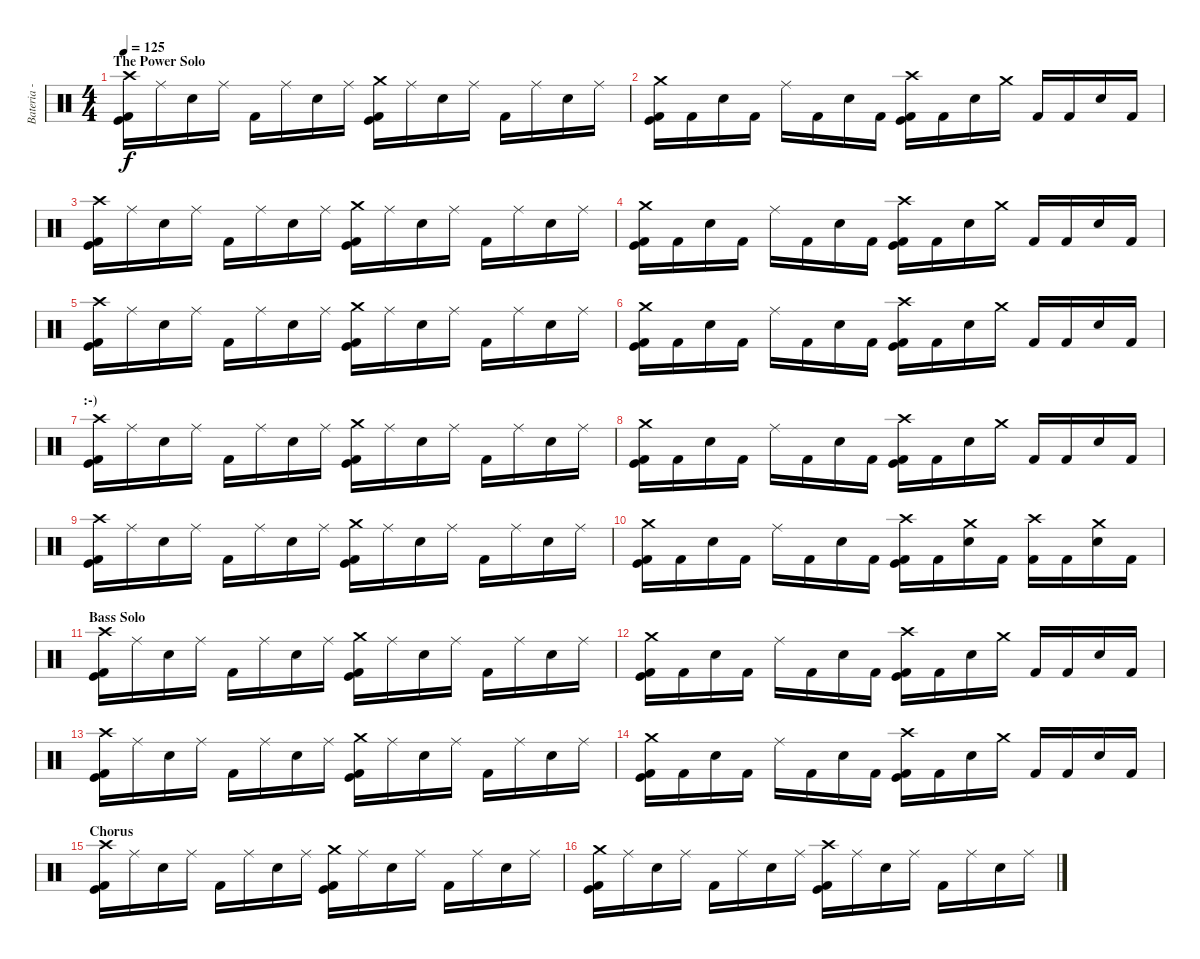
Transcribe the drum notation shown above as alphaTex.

\track ("Bateria - Drums" "Bateria - ") {instrument percussion}
\staff {score}
\articulation defaults
\ts (4 4)
\section ("" "The Power Solo")
\tempo 125
\clef neutral
\ks c
("Crash high (hit)" "Kick (hit)" "Kick (hit) 2").16{dy f} "Ride (middle)".16 "Electric Snare (hit)".16 "Ride (middle)".16 "Kick (hit) 2".16 "Ride (middle)".16 "Electric Snare (hit)".16 "Ride (middle)".16 ("Crash medium (hit)" "Kick (hit)" "Kick (hit) 2").16 "Ride (middle)".16 "Electric Snare (hit)".16 "Ride (middle)".16 "Kick (hit) 2".16 "Ride (middle)".16 "Electric Snare (hit)".16 "Ride (middle)".16 |
("Crash medium (hit)" "Kick (hit)" "Kick (hit) 2").16 "Kick (hit) 2".16 "Electric Snare (hit)".16 "Kick (hit) 2".16 "Ride (middle)".16 "Kick (hit) 2".16 "Electric Snare (hit)".16 "Kick (hit) 2".16 ("Crash high (hit)" "Kick (hit)" "Kick (hit) 2").16 "Kick (hit) 2".16 "Electric Snare (hit)".16 "Crash medium (hit)".16 "Kick (hit) 2".16 "Kick (hit) 2".16 "Electric Snare (hit)".16 "Kick (hit) 2".16 |
("Crash high (hit)" "Kick (hit)" "Kick (hit) 2").16 "Ride (middle)".16 "Electric Snare (hit)".16 "Ride (middle)".16 "Kick (hit) 2".16 "Ride (middle)".16 "Electric Snare (hit)".16 "Ride (middle)".16 ("Crash medium (hit)" "Kick (hit)" "Kick (hit) 2").16 "Ride (middle)".16 "Electric Snare (hit)".16 "Ride (middle)".16 "Kick (hit) 2".16 "Ride (middle)".16 "Electric Snare (hit)".16 "Ride (middle)".16 |
("Crash medium (hit)" "Kick (hit)" "Kick (hit) 2").16 "Kick (hit) 2".16 "Electric Snare (hit)".16 "Kick (hit) 2".16 "Ride (middle)".16 "Kick (hit) 2".16 "Electric Snare (hit)".16 "Kick (hit) 2".16 ("Crash high (hit)" "Kick (hit)" "Kick (hit) 2").16 "Kick (hit) 2".16 "Electric Snare (hit)".16 "Crash medium (hit)".16 "Kick (hit) 2".16 "Kick (hit) 2".16 "Electric Snare (hit)".16 "Kick (hit) 2".16 |
("Crash high (hit)" "Kick (hit)" "Kick (hit) 2").16 "Ride (middle)".16 "Electric Snare (hit)".16 "Ride (middle)".16 "Kick (hit) 2".16 "Ride (middle)".16 "Electric Snare (hit)".16 "Ride (middle)".16 ("Crash medium (hit)" "Kick (hit)" "Kick (hit) 2").16 "Ride (middle)".16 "Electric Snare (hit)".16 "Ride (middle)".16 "Kick (hit) 2".16 "Ride (middle)".16 "Electric Snare (hit)".16 "Ride (middle)".16 |
("Crash medium (hit)" "Kick (hit)" "Kick (hit) 2").16 "Kick (hit) 2".16 "Electric Snare (hit)".16 "Kick (hit) 2".16 "Ride (middle)".16 "Kick (hit) 2".16 "Electric Snare (hit)".16 "Kick (hit) 2".16 ("Crash high (hit)" "Kick (hit)" "Kick (hit) 2").16 "Kick (hit) 2".16 "Electric Snare (hit)".16 "Crash medium (hit)".16 "Kick (hit) 2".16 "Kick (hit) 2".16 "Electric Snare (hit)".16 "Kick (hit) 2".16 |
\section ("" ":-)")
("Crash high (hit)" "Kick (hit)" "Kick (hit) 2").16 "Ride (middle)".16 "Electric Snare (hit)".16 "Ride (middle)".16 "Kick (hit) 2".16 "Ride (middle)".16 "Electric Snare (hit)".16 "Ride (middle)".16 ("Crash medium (hit)" "Kick (hit)" "Kick (hit) 2").16 "Ride (middle)".16 "Electric Snare (hit)".16 "Ride (middle)".16 "Kick (hit) 2".16 "Ride (middle)".16 "Electric Snare (hit)".16 "Ride (middle)".16 |
("Crash medium (hit)" "Kick (hit)" "Kick (hit) 2").16 "Kick (hit) 2".16 "Electric Snare (hit)".16 "Kick (hit) 2".16 "Ride (middle)".16 "Kick (hit) 2".16 "Electric Snare (hit)".16 "Kick (hit) 2".16 ("Crash high (hit)" "Kick (hit)" "Kick (hit) 2").16 "Kick (hit) 2".16 "Electric Snare (hit)".16 "Crash medium (hit)".16 "Kick (hit) 2".16 "Kick (hit) 2".16 "Electric Snare (hit)".16 "Kick (hit) 2".16 |
("Crash high (hit)" "Kick (hit)" "Kick (hit) 2").16 "Ride (middle)".16 "Electric Snare (hit)".16 "Ride (middle)".16 "Kick (hit) 2".16 "Ride (middle)".16 "Electric Snare (hit)".16 "Ride (middle)".16 ("Crash medium (hit)" "Kick (hit)" "Kick (hit) 2").16 "Ride (middle)".16 "Electric Snare (hit)".16 "Ride (middle)".16 "Kick (hit) 2".16 "Ride (middle)".16 "Electric Snare (hit)".16 "Ride (middle)".16 |
("Crash medium (hit)" "Kick (hit)" "Kick (hit) 2").16 "Kick (hit) 2".16 "Electric Snare (hit)".16 "Kick (hit) 2".16 "Ride (middle)".16 "Kick (hit) 2".16 "Electric Snare (hit)".16 "Kick (hit) 2".16 ("Crash high (hit)" "Kick (hit)" "Kick (hit) 2").16 "Kick (hit) 2".16 ("Crash medium (hit)" "Electric Snare (hit)").16 "Kick (hit) 2".16 ("Crash high (hit)" "Kick (hit) 2").16 "Kick (hit) 2".16 ("Crash medium (hit)" "Electric Snare (hit)").16 "Kick (hit) 2".16 |
\section ("" "Bass Solo")
("Crash high (hit)" "Kick (hit)" "Kick (hit) 2").16 "Ride (middle)".16 "Electric Snare (hit)".16 "Ride (middle)".16 "Kick (hit) 2".16 "Ride (middle)".16 "Electric Snare (hit)".16 "Ride (middle)".16 ("Crash medium (hit)" "Kick (hit)" "Kick (hit) 2").16 "Ride (middle)".16 "Electric Snare (hit)".16 "Ride (middle)".16 "Kick (hit) 2".16 "Ride (middle)".16 "Electric Snare (hit)".16 "Ride (middle)".16 |
("Crash medium (hit)" "Kick (hit)" "Kick (hit) 2").16 "Kick (hit) 2".16 "Electric Snare (hit)".16 "Kick (hit) 2".16 "Ride (middle)".16 "Kick (hit) 2".16 "Electric Snare (hit)".16 "Kick (hit) 2".16 ("Crash high (hit)" "Kick (hit)" "Kick (hit) 2").16 "Kick (hit) 2".16 "Electric Snare (hit)".16 "Crash medium (hit)".16 "Kick (hit) 2".16 "Kick (hit) 2".16 "Electric Snare (hit)".16 "Kick (hit) 2".16 |
("Crash high (hit)" "Kick (hit)" "Kick (hit) 2").16 "Ride (middle)".16 "Electric Snare (hit)".16 "Ride (middle)".16 "Kick (hit) 2".16 "Ride (middle)".16 "Electric Snare (hit)".16 "Ride (middle)".16 ("Crash medium (hit)" "Kick (hit)" "Kick (hit) 2").16 "Ride (middle)".16 "Electric Snare (hit)".16 "Ride (middle)".16 "Kick (hit) 2".16 "Ride (middle)".16 "Electric Snare (hit)".16 "Ride (middle)".16 |
("Crash medium (hit)" "Kick (hit)" "Kick (hit) 2").16 "Kick (hit) 2".16 "Electric Snare (hit)".16 "Kick (hit) 2".16 "Ride (middle)".16 "Kick (hit) 2".16 "Electric Snare (hit)".16 "Kick (hit) 2".16 ("Crash high (hit)" "Kick (hit)" "Kick (hit) 2").16 "Kick (hit) 2".16 "Electric Snare (hit)".16 "Crash medium (hit)".16 "Kick (hit) 2".16 "Kick (hit) 2".16 "Electric Snare (hit)".16 "Kick (hit) 2".16 |
\section ("" "Chorus")
("Crash high (hit)" "Kick (hit)" "Kick (hit) 2").16 "Ride (middle)".16 "Electric Snare (hit)".16 "Ride (middle)".16 "Kick (hit) 2".16 "Ride (middle)".16 "Electric Snare (hit)".16 "Ride (middle)".16 ("Crash medium (hit)" "Kick (hit)" "Kick (hit) 2").16 "Ride (middle)".16 "Electric Snare (hit)".16 "Ride (middle)".16 "Kick (hit) 2".16 "Ride (middle)".16 "Electric Snare (hit)".16 "Ride (middle)".16 |
("Crash medium (hit)" "Kick (hit)" "Kick (hit) 2").16 "Ride (middle)".16 "Electric Snare (hit)".16 "Ride (middle)".16 "Kick (hit) 2".16 "Ride (middle)".16 "Electric Snare (hit)".16 "Ride (middle)".16 ("Crash high (hit)" "Kick (hit)" "Kick (hit) 2").16 "Ride (middle)".16 "Electric Snare (hit)".16 "Ride (middle)".16 "Kick (hit) 2".16 "Ride (middle)".16 "Electric Snare (hit)".16 "Ride (middle)".16
